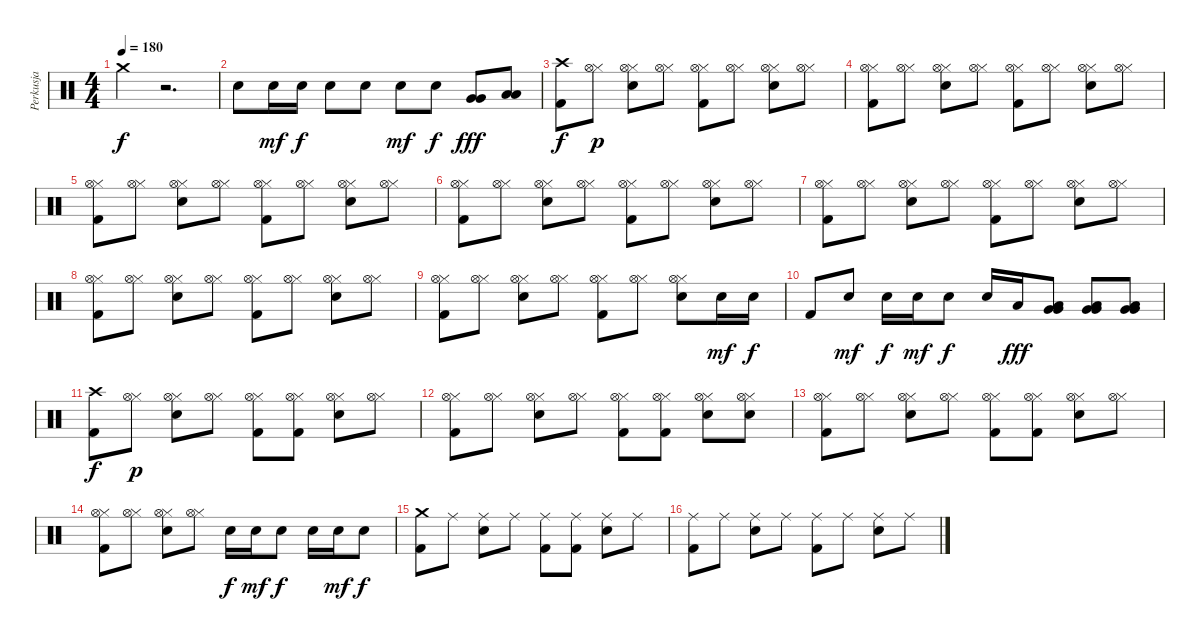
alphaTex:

\track ("Perkusja" "Perkusja") {instrument percussion}
\staff {score}
\articulation defaults
\ts (4 4)
\tempo 180
\clef neutral
\ks c "Crash medium (hit)".4{dy f}
r.2{d} |
"Electric Snare (hit)".8 "Electric Snare (hit)".16{dy mf} "Electric Snare (hit)".16{dy f} "Electric Snare (hit)".8 "Electric Snare (hit)".8 "Electric Snare (hit)".8{dy mf} "Electric Snare (hit)".8{dy f} ("Very Low Tom (hit)" "Very Low Tom (hit)").8{dy fff} ("Low Floor Tom (hit)" "Low Floor Tom (hit)").8 |
("Kick (hit) 2" "Crash high (hit)").8{dy f} ("Hi-Hat (closed)" "Hi-Hat (open)").8{dy p} ("Electric Snare (hit)" "Hi-Hat (closed)" "Hi-Hat (open)").8 ("Hi-Hat (closed)" "Hi-Hat (open)").8 ("Kick (hit) 2" "Hi-Hat (closed)" "Hi-Hat (open)").8 ("Hi-Hat (closed)" "Hi-Hat (open)").8 ("Electric Snare (hit)" "Hi-Hat (closed)" "Hi-Hat (open)").8 ("Hi-Hat (closed)" "Hi-Hat (open)").8 |
("Kick (hit) 2" "Hi-Hat (closed)" "Hi-Hat (open)").8 ("Hi-Hat (closed)" "Hi-Hat (open)").8 ("Electric Snare (hit)" "Hi-Hat (closed)" "Hi-Hat (open)").8 ("Hi-Hat (closed)" "Hi-Hat (open)").8 ("Kick (hit) 2" "Hi-Hat (closed)" "Hi-Hat (open)").8 ("Hi-Hat (closed)" "Hi-Hat (open)").8 ("Electric Snare (hit)" "Hi-Hat (closed)" "Hi-Hat (open)").8 ("Hi-Hat (closed)" "Hi-Hat (open)").8 |
("Kick (hit) 2" "Hi-Hat (closed)" "Hi-Hat (open)").8 ("Hi-Hat (closed)" "Hi-Hat (open)").8 ("Electric Snare (hit)" "Hi-Hat (closed)" "Hi-Hat (open)").8 ("Hi-Hat (closed)" "Hi-Hat (open)").8 ("Kick (hit) 2" "Hi-Hat (closed)" "Hi-Hat (open)").8 ("Hi-Hat (closed)" "Hi-Hat (open)").8 ("Electric Snare (hit)" "Hi-Hat (closed)" "Hi-Hat (open)").8 ("Hi-Hat (closed)" "Hi-Hat (open)").8 |
("Kick (hit) 2" "Hi-Hat (closed)" "Hi-Hat (open)").8 ("Hi-Hat (closed)" "Hi-Hat (open)").8 ("Electric Snare (hit)" "Hi-Hat (closed)" "Hi-Hat (open)").8 ("Hi-Hat (closed)" "Hi-Hat (open)").8 ("Kick (hit) 2" "Hi-Hat (closed)" "Hi-Hat (open)").8 ("Hi-Hat (closed)" "Hi-Hat (open)").8 ("Electric Snare (hit)" "Hi-Hat (closed)" "Hi-Hat (open)").8 ("Hi-Hat (closed)" "Hi-Hat (open)").8 |
("Kick (hit) 2" "Hi-Hat (closed)" "Hi-Hat (open)").8 ("Hi-Hat (closed)" "Hi-Hat (open)").8 ("Electric Snare (hit)" "Hi-Hat (closed)" "Hi-Hat (open)").8 ("Hi-Hat (closed)" "Hi-Hat (open)").8 ("Kick (hit) 2" "Hi-Hat (closed)" "Hi-Hat (open)").8 ("Hi-Hat (closed)" "Hi-Hat (open)").8 ("Electric Snare (hit)" "Hi-Hat (closed)" "Hi-Hat (open)").8 ("Hi-Hat (closed)" "Hi-Hat (open)").8 |
("Kick (hit) 2" "Hi-Hat (closed)" "Hi-Hat (open)").8 ("Hi-Hat (closed)" "Hi-Hat (open)").8 ("Electric Snare (hit)" "Hi-Hat (closed)" "Hi-Hat (open)").8 ("Hi-Hat (closed)" "Hi-Hat (open)").8 ("Kick (hit) 2" "Hi-Hat (closed)" "Hi-Hat (open)").8 ("Hi-Hat (closed)" "Hi-Hat (open)").8 ("Electric Snare (hit)" "Hi-Hat (closed)" "Hi-Hat (open)").8 ("Hi-Hat (closed)" "Hi-Hat (open)").8 |
("Kick (hit) 2" "Hi-Hat (closed)" "Hi-Hat (open)").8 ("Hi-Hat (closed)" "Hi-Hat (open)").8 ("Electric Snare (hit)" "Hi-Hat (closed)" "Hi-Hat (open)").8 ("Hi-Hat (closed)" "Hi-Hat (open)").8 ("Kick (hit) 2" "Hi-Hat (closed)" "Hi-Hat (open)").8 ("Hi-Hat (closed)" "Hi-Hat (open)").8 ("Electric Snare (hit)" "Hi-Hat (closed)" "Hi-Hat (open)").8 "Electric Snare (hit)".16{dy mf} "Electric Snare (hit)".16{dy f} |
"Kick (hit) 2".8 "Electric Snare (hit)".8{dy mf} "Electric Snare (hit)".16{dy f} "Electric Snare (hit)".16{dy mf} "Electric Snare (hit)".8{dy f} "Electric Snare (hit)".16 "Low Tom (hit)".16{dy fff} ("Very Low Tom (hit)" "Very Low Tom (hit)" "Low Floor Tom (hit)").8 ("Very Low Tom (hit)" "Very Low Tom (hit)" "Low Floor Tom (hit)").8 ("Very Low Tom (hit)" "Very Low Tom (hit)" "Low Floor Tom (hit)").8 |
("Kick (hit) 2" "Crash high (hit)").8{dy f} ("Hi-Hat (closed)" "Hi-Hat (open)").8{dy p} ("Electric Snare (hit)" "Hi-Hat (closed)" "Hi-Hat (open)").8 ("Hi-Hat (closed)" "Hi-Hat (open)").8 ("Kick (hit) 2" "Hi-Hat (closed)" "Hi-Hat (open)").8 ("Kick (hit) 2" "Hi-Hat (closed)" "Hi-Hat (open)").8 ("Electric Snare (hit)" "Hi-Hat (closed)" "Hi-Hat (open)").8 ("Hi-Hat (closed)" "Hi-Hat (open)").8 |
("Kick (hit) 2" "Hi-Hat (closed)" "Hi-Hat (open)").8 ("Hi-Hat (closed)" "Hi-Hat (open)").8 ("Electric Snare (hit)" "Hi-Hat (closed)" "Hi-Hat (open)").8 ("Hi-Hat (closed)" "Hi-Hat (open)").8 ("Kick (hit) 2" "Hi-Hat (closed)" "Hi-Hat (open)").8 ("Kick (hit) 2" "Hi-Hat (closed)" "Hi-Hat (open)").8 ("Electric Snare (hit)" "Hi-Hat (closed)" "Hi-Hat (open)").8 ("Electric Snare (hit)" "Hi-Hat (closed)" "Hi-Hat (open)").8 |
("Kick (hit) 2" "Hi-Hat (closed)" "Hi-Hat (open)").8 ("Hi-Hat (closed)" "Hi-Hat (open)").8 ("Electric Snare (hit)" "Hi-Hat (closed)" "Hi-Hat (open)").8 ("Hi-Hat (closed)" "Hi-Hat (open)").8 ("Kick (hit) 2" "Hi-Hat (closed)" "Hi-Hat (open)").8 ("Kick (hit) 2" "Hi-Hat (closed)" "Hi-Hat (open)").8 ("Electric Snare (hit)" "Hi-Hat (closed)" "Hi-Hat (open)").8 ("Hi-Hat (closed)" "Hi-Hat (open)").8 |
("Kick (hit) 2" "Hi-Hat (closed)" "Hi-Hat (open)").8 ("Hi-Hat (closed)" "Hi-Hat (open)").8 ("Electric Snare (hit)" "Hi-Hat (closed)" "Hi-Hat (open)").8 ("Hi-Hat (closed)" "Hi-Hat (open)").8 "Electric Snare (hit)".16{dy f} "Electric Snare (hit)".16{dy mf} "Electric Snare (hit)".8{dy f} "Electric Snare (hit)".16 "Electric Snare (hit)".16{dy mf} "Electric Snare (hit)".8{dy f} |
("Kick (hit) 2" "Crash medium (hit)").8 "Ride (middle)".8 ("Electric Snare (hit)" "Ride (middle)").8 "Ride (middle)".8 ("Kick (hit) 2" "Ride (middle)").8 ("Kick (hit) 2" "Ride (middle)").8 ("Electric Snare (hit)" "Ride (middle)").8 "Ride (middle)".8 |
("Kick (hit) 2" "Ride (middle)").8 "Ride (middle)".8 ("Electric Snare (hit)" "Ride (middle)").8 "Ride (middle)".8 ("Kick (hit) 2" "Ride (middle)").8 "Ride (middle)".8 ("Electric Snare (hit)" "Ride (middle)").8 "Ride (middle)".8
